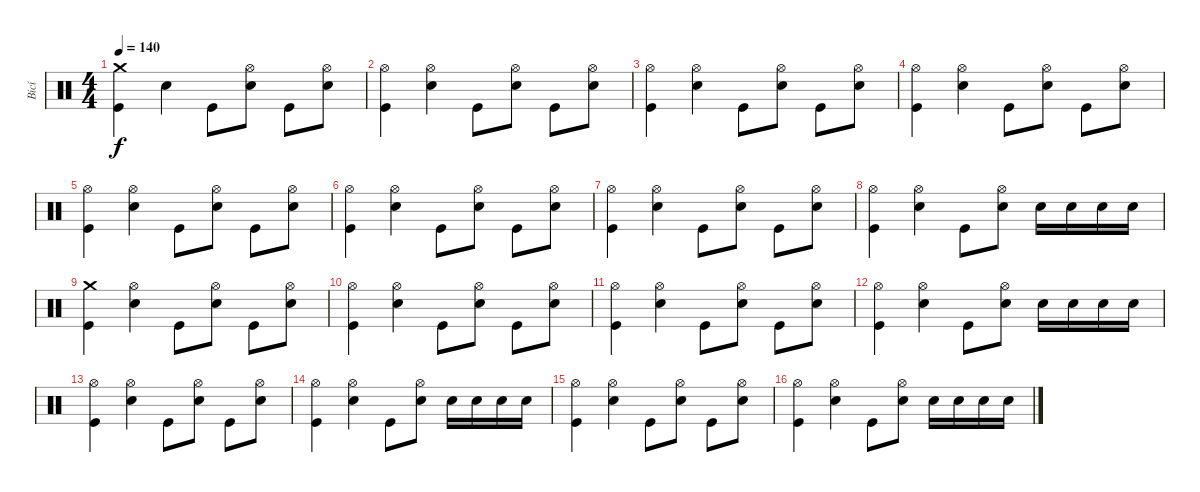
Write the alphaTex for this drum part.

\track ("Bicí" "Bicí") {instrument percussion}
\staff {score}
\articulation defaults
\ts (4 4)
\section ("" "")
\tempo 140
\clef neutral
\ks c
("Crash medium (hit)" "Kick (hit)").4{dy f} "Electric Snare (hit)".4 "Kick (hit)".8 ("Hi-Hat (open)" "Electric Snare (hit)").8 "Kick (hit)".8 ("Hi-Hat (open)" "Electric Snare (hit)").8 |
("Hi-Hat (open)" "Kick (hit)").4 ("Hi-Hat (open)" "Electric Snare (hit)").4 "Kick (hit)".8 ("Hi-Hat (open)" "Electric Snare (hit)").8 "Kick (hit)".8 ("Hi-Hat (open)" "Electric Snare (hit)").8 |
("Hi-Hat (open)" "Kick (hit)").4 ("Hi-Hat (open)" "Electric Snare (hit)").4 "Kick (hit)".8 ("Hi-Hat (open)" "Electric Snare (hit)").8 "Kick (hit)".8 ("Hi-Hat (open)" "Electric Snare (hit)").8 |
("Hi-Hat (open)" "Kick (hit)").4 ("Hi-Hat (open)" "Electric Snare (hit)").4 "Kick (hit)".8 ("Hi-Hat (open)" "Electric Snare (hit)").8 "Kick (hit)".8 ("Hi-Hat (open)" "Electric Snare (hit)").8 |
("Hi-Hat (open)" "Kick (hit)").4 ("Hi-Hat (open)" "Electric Snare (hit)").4 "Kick (hit)".8 ("Hi-Hat (open)" "Electric Snare (hit)").8 "Kick (hit)".8 ("Hi-Hat (open)" "Electric Snare (hit)").8 |
("Hi-Hat (open)" "Kick (hit)").4 ("Hi-Hat (open)" "Electric Snare (hit)").4 "Kick (hit)".8 ("Hi-Hat (open)" "Electric Snare (hit)").8 "Kick (hit)".8 ("Hi-Hat (open)" "Electric Snare (hit)").8 |
("Hi-Hat (open)" "Kick (hit)").4 ("Hi-Hat (open)" "Electric Snare (hit)").4 "Kick (hit)".8 ("Hi-Hat (open)" "Electric Snare (hit)").8 "Kick (hit)".8 ("Hi-Hat (open)" "Electric Snare (hit)").8 |
("Hi-Hat (open)" "Kick (hit)").4 ("Hi-Hat (open)" "Electric Snare (hit)").4 "Kick (hit)".8 ("Hi-Hat (open)" "Electric Snare (hit)").8 "Electric Snare (hit)".16 "Electric Snare (hit)".16 "Electric Snare (hit)".16 "Electric Snare (hit)".16 |
("Crash medium (hit)" "Kick (hit)").4 ("Hi-Hat (open)" "Electric Snare (hit)").4 "Kick (hit)".8 ("Hi-Hat (open)" "Electric Snare (hit)").8 "Kick (hit)".8 ("Hi-Hat (open)" "Electric Snare (hit)").8 |
("Hi-Hat (open)" "Kick (hit)").4 ("Hi-Hat (open)" "Electric Snare (hit)").4 "Kick (hit)".8 ("Hi-Hat (open)" "Electric Snare (hit)").8 "Kick (hit)".8 ("Hi-Hat (open)" "Electric Snare (hit)").8 |
("Hi-Hat (open)" "Kick (hit)").4 ("Hi-Hat (open)" "Electric Snare (hit)").4 "Kick (hit)".8 ("Hi-Hat (open)" "Electric Snare (hit)").8 "Kick (hit)".8 ("Hi-Hat (open)" "Electric Snare (hit)").8 |
("Hi-Hat (open)" "Kick (hit)").4 ("Hi-Hat (open)" "Electric Snare (hit)").4 "Kick (hit)".8 ("Hi-Hat (open)" "Electric Snare (hit)").8 "Electric Snare (hit)".16 "Electric Snare (hit)".16 "Electric Snare (hit)".16 "Electric Snare (hit)".16 |
("Hi-Hat (open)" "Kick (hit)").4 ("Hi-Hat (open)" "Electric Snare (hit)").4 "Kick (hit)".8 ("Hi-Hat (open)" "Electric Snare (hit)").8 "Kick (hit)".8 ("Hi-Hat (open)" "Electric Snare (hit)").8 |
("Hi-Hat (open)" "Kick (hit)").4 ("Hi-Hat (open)" "Electric Snare (hit)").4 "Kick (hit)".8 ("Hi-Hat (open)" "Electric Snare (hit)").8 "Electric Snare (hit)".16 "Electric Snare (hit)".16 "Electric Snare (hit)".16 "Electric Snare (hit)".16 |
("Hi-Hat (open)" "Kick (hit)").4 ("Hi-Hat (open)" "Electric Snare (hit)").4 "Kick (hit)".8 ("Hi-Hat (open)" "Electric Snare (hit)").8 "Kick (hit)".8 ("Hi-Hat (open)" "Electric Snare (hit)").8 |
("Hi-Hat (open)" "Kick (hit)").4 ("Hi-Hat (open)" "Electric Snare (hit)").4 "Kick (hit)".8 ("Hi-Hat (open)" "Electric Snare (hit)").8 "Electric Snare (hit)".16 "Electric Snare (hit)".16 "Electric Snare (hit)".16 "Electric Snare (hit)".16
